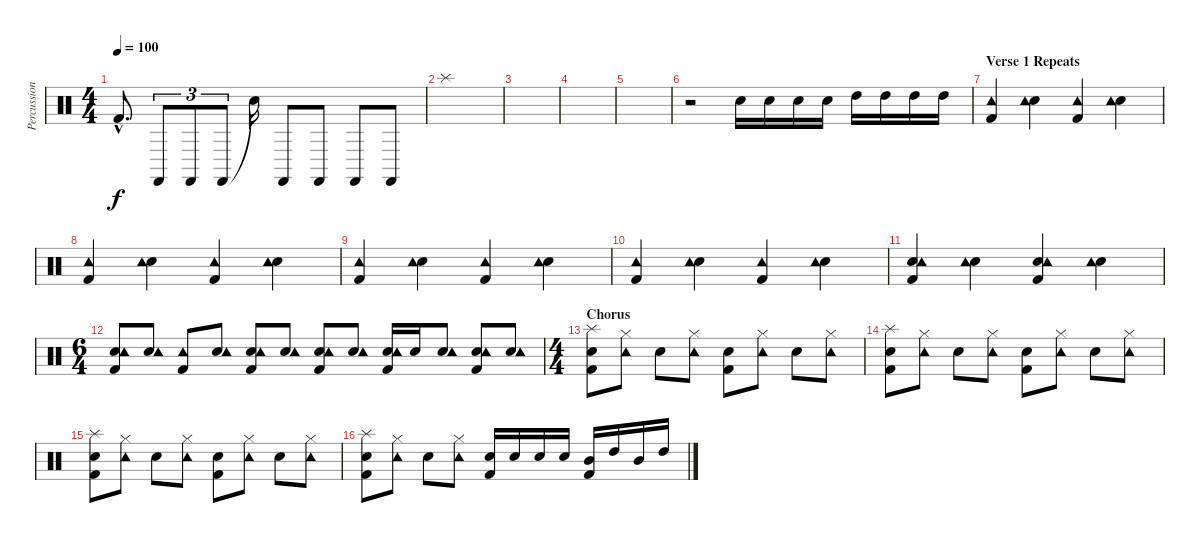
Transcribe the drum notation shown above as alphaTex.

\track ("Percussion" "Percussion") {instrument percussion}
\staff {score}
\articulation defaults
\ts (4 4)
\tempo 100
\clef neutral
\ks c "Kick (hit) 2"{hac}.8{d dy f} "Castanets (hit)".8{tu (3 2)} "Castanets (hit)".8{tu (3 2)} "Castanets (hit)".8{tu (3 2)} "Snare (hit)"{t}.16 "Castanets (hit)".8 "Castanets (hit)".8 "Castanets (hit)".8 "Castanets (hit)".8
|
"Splash (hit)".1 |
|
|
|
r.2 "Electric Snare (hit)".16 "Electric Snare (hit)".16 "Electric Snare (hit)".16 "Electric Snare (hit)".16 "High Tom (hit)".16 "High Tom (hit)".16 "High Tom (hit)".16 "High Tom (hit)".16 |
\section ("" "Verse 1 Repeats")
("Tambourine (hit)" "Kick (hit) 2").4 ("Electric Snare (hit)" "Tambourine (hit)").4 ("Tambourine (hit)" "Kick (hit) 2").4 ("Electric Snare (hit)" "Tambourine (hit)").4 |
("Tambourine (hit)" "Kick (hit) 2").4 ("Electric Snare (hit)" "Tambourine (hit)").4 ("Tambourine (hit)" "Kick (hit) 2").4 ("Electric Snare (hit)" "Tambourine (hit)").4 |
("Tambourine (hit)" "Kick (hit) 2").4 ("Electric Snare (hit)" "Tambourine (hit)").4 ("Tambourine (hit)" "Kick (hit) 2").4 ("Electric Snare (hit)" "Tambourine (hit)").4 |
("Tambourine (hit)" "Kick (hit) 2").4 ("Electric Snare (hit)" "Tambourine (hit)").4 ("Tambourine (hit)" "Kick (hit) 2").4 ("Electric Snare (hit)" "Tambourine (hit)").4 |
("Electric Snare (hit)" "Tambourine (hit)" "Kick (hit) 2").4 ("Electric Snare (hit)" "Tambourine (hit)").4 ("Electric Snare (hit)" "Tambourine (hit)" "Kick (hit) 2").4 ("Electric Snare (hit)" "Tambourine (hit)").4 |
\ts (6 4)
("Electric Snare (hit)" "Tambourine (hit)" "Kick (hit) 2").8 ("Electric Snare (hit)" "Tambourine (hit)").8 ("Tambourine (hit)" "Kick (hit) 2").8 ("Electric Snare (hit)" "Tambourine (hit)").8 ("Electric Snare (hit)" "Tambourine (hit)" "Kick (hit) 2").8 ("Electric Snare (hit)" "Tambourine (hit)").8 ("Electric Snare (hit)" "Tambourine (hit)" "Kick (hit) 2").8 ("Electric Snare (hit)" "Tambourine (hit)").8 ("Electric Snare (hit)" "Tambourine (hit)" "Kick (hit) 2").16 "Electric Snare (hit)".16 ("Electric Snare (hit)" "Tambourine (hit)").8 ("Electric Snare (hit)" "Tambourine (hit)" "Kick (hit) 2").8 ("Electric Snare (hit)" "Tambourine (hit)").8 |
\ts (4 4)
\section ("" "Chorus")
("Splash (hit)" "Electric Snare (hit)" "Kick (hit) 2").8 ("Hi-Hat (closed)" "Tambourine (hit)").8 "Electric Snare (hit)".8 ("Hi-Hat (closed)" "Tambourine (hit)").8 ("Electric Snare (hit)" "Kick (hit) 2").8 ("Hi-Hat (closed)" "Tambourine (hit)").8 "Electric Snare (hit)".8 ("Hi-Hat (closed)" "Tambourine (hit)").8 |
("Splash (hit)" "Electric Snare (hit)" "Kick (hit) 2").8 ("Hi-Hat (closed)" "Tambourine (hit)").8 "Electric Snare (hit)".8 ("Hi-Hat (closed)" "Tambourine (hit)").8 ("Electric Snare (hit)" "Kick (hit) 2").8 ("Hi-Hat (closed)" "Tambourine (hit)").8 "Electric Snare (hit)".8 ("Hi-Hat (closed)" "Tambourine (hit)").8 |
("Splash (hit)" "Electric Snare (hit)" "Kick (hit) 2").8 ("Hi-Hat (closed)" "Tambourine (hit)").8 "Electric Snare (hit)".8 ("Hi-Hat (closed)" "Tambourine (hit)").8 ("Electric Snare (hit)" "Kick (hit) 2").8 ("Hi-Hat (closed)" "Tambourine (hit)").8 "Electric Snare (hit)".8 ("Hi-Hat (closed)" "Tambourine (hit)").8 |
("Splash (hit)" "Electric Snare (hit)" "Kick (hit) 2").8 ("Hi-Hat (closed)" "Tambourine (hit)").8 "Electric Snare (hit)".8 ("Hi-Hat (closed)" "Tambourine (hit)").8 ("Electric Snare (hit)" "Kick (hit) 2").16 "Electric Snare (hit)".16 "Electric Snare (hit)".16 "Electric Snare (hit)".16 ("Mid Tom (hit)" "Kick (hit) 2").16 "High Tom (hit)".16 "Mid Tom (hit)".16 "High Tom (hit)".16
